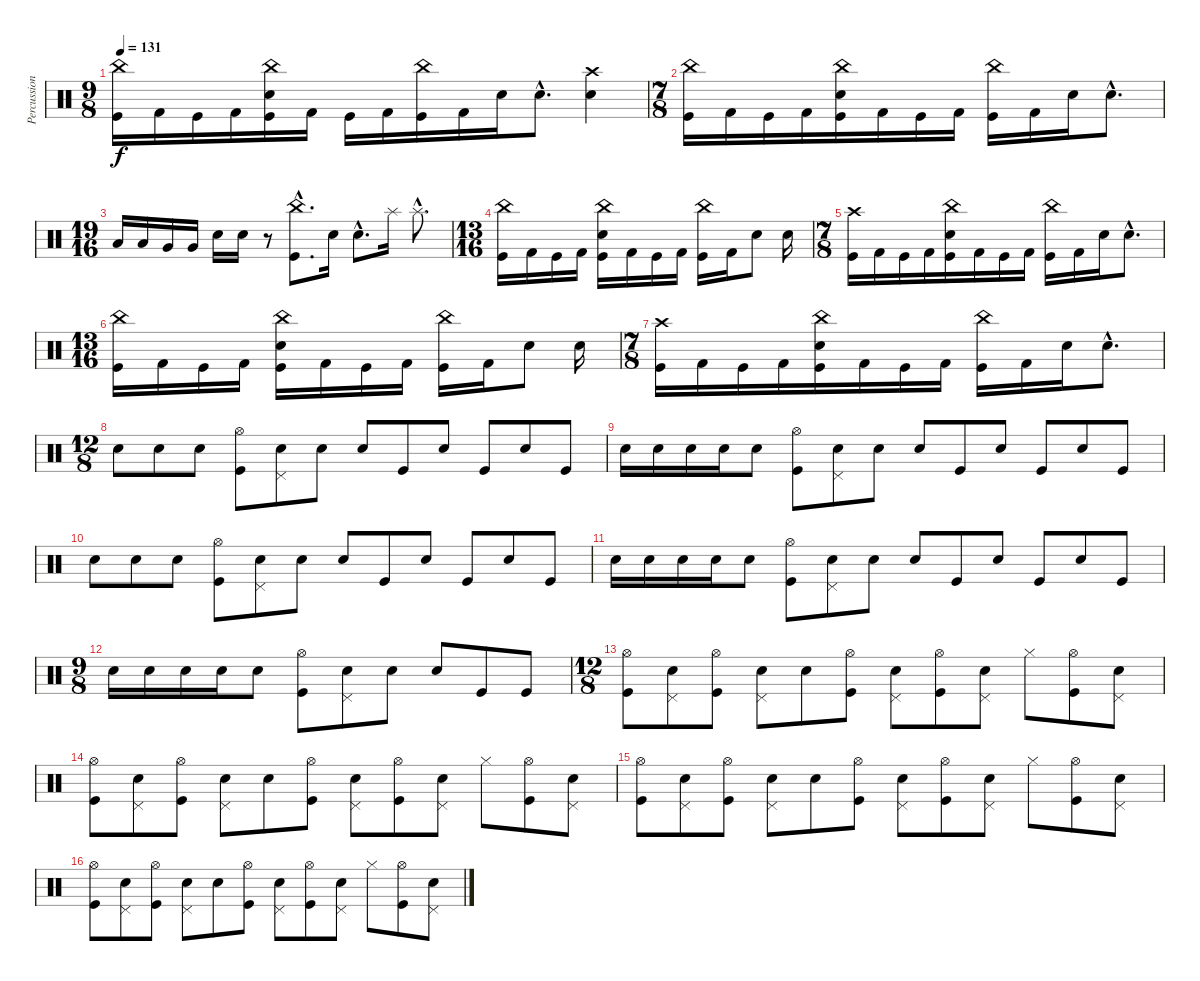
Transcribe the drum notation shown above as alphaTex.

\track ("Percussion" "Percussion") {instrument percussion}
\staff {score}
\articulation defaults
\ts (9 8)
\tempo 131
\clef neutral
\ks c
("China (hit)" "Kick (hit)").16{dy f} "Kick (hit) 2".16 "Kick (hit)".16 "Kick (hit) 2".16 ("China (hit)" "Kick (hit)" "Snare (hit) 2").16 "Kick (hit) 2".16 "Kick (hit)".16 "Kick (hit) 2".16 ("China (hit)" "Kick (hit)").16 "Kick (hit) 2".16 "Snare (hit) 2".16 "Snare (hit) 2"{hac}.8{d} ("Crash high (hit)" "Snare (hit) 2").4 |
\ts (7 8)
("China (hit)" "Kick (hit)").16 "Kick (hit) 2".16 "Kick (hit)".16 "Kick (hit) 2".16 ("China (hit)" "Kick (hit)" "Snare (hit) 2").16 "Kick (hit) 2".16 "Kick (hit)".16 "Kick (hit) 2".16 ("China (hit)" "Kick (hit)").16 "Kick (hit) 2".16 "Snare (hit) 2".16 "Snare (hit) 2"{hac}.8{d} |
\ts (19 16)
"Low Tom (hit)".16 "Low Tom (hit)".16 "Very Low Tom (hit)".16 "Very Low Tom (hit)".16 "Snare (hit) 2".16 "Snare (hit) 2".16 r.8 ("China (hit)"{hac} "Kick (hit)"{hac}).8{d} "Snare (hit) 2".16 "Snare (hit) 2"{hac}.8{d} "Splash (hit)".16 "Splash (hit)"{hac}.8{d} |
\ts (13 16)
("China (hit)" "Kick (hit)").16 "Kick (hit) 2".16 "Kick (hit)".16 "Kick (hit) 2".16 ("China (hit)" "Kick (hit)" "Snare (hit) 2").16 "Kick (hit) 2".16 "Kick (hit)".16 "Kick (hit) 2".16 ("China (hit)" "Kick (hit)").16 "Kick (hit) 2".16 "Snare (hit) 2".8 "Snare (hit) 2".16 |
\ts (7 8)
("Crash high (hit)" "Kick (hit)").16 "Kick (hit) 2".16 "Kick (hit)".16 "Kick (hit) 2".16 ("China (hit)" "Kick (hit)" "Snare (hit) 2").16 "Kick (hit) 2".16 "Kick (hit)".16 "Kick (hit) 2".16 ("China (hit)" "Kick (hit)").16 "Kick (hit) 2".16 "Snare (hit) 2".16 "Snare (hit) 2"{hac}.8{d} |
\ts (13 16)
("China (hit)" "Kick (hit)").16 "Kick (hit) 2".16 "Kick (hit)".16 "Kick (hit) 2".16 ("China (hit)" "Kick (hit)" "Snare (hit) 2").16 "Kick (hit) 2".16 "Kick (hit)".16 "Kick (hit) 2".16 ("China (hit)" "Kick (hit)").16 "Kick (hit) 2".16 "Snare (hit) 2".8 "Snare (hit) 2".16 |
\ts (7 8)
("Crash high (hit)" "Kick (hit)").16 "Kick (hit) 2".16 "Kick (hit)".16 "Kick (hit) 2".16 ("China (hit)" "Kick (hit)" "Snare (hit) 2").16 "Kick (hit) 2".16 "Kick (hit)".16 "Kick (hit) 2".16 ("China (hit)" "Kick (hit)").16 "Kick (hit) 2".16 "Snare (hit) 2".16 "Snare (hit) 2"{hac}.8{d} |
\ts (12 8)
"Snare (hit) 2".8 "Snare (hit) 2".8 "Snare (hit) 2".8 ("Hi-Hat (open)" "Kick (hit)").8 ("Snare (hit) 2" "Pedal Hi-Hat (hit)").8 "Snare (hit) 2".8 "Electric Snare (hit)".8 "Kick (hit)".8 "Electric Snare (hit)".8 "Kick (hit)".8 "Electric Snare (hit)".8 "Kick (hit)".8 |
"Snare (hit) 2".16 "Snare (hit) 2".16 "Snare (hit) 2".16 "Snare (hit) 2".16 "Snare (hit) 2".8 ("Hi-Hat (open)" "Kick (hit)").8 ("Snare (hit) 2" "Pedal Hi-Hat (hit)").8 "Snare (hit) 2".8 "Electric Snare (hit)".8 "Kick (hit)".8 "Electric Snare (hit)".8 "Kick (hit)".8 "Electric Snare (hit)".8 "Kick (hit)".8 |
"Snare (hit) 2".8 "Snare (hit) 2".8 "Snare (hit) 2".8 ("Hi-Hat (open)" "Kick (hit)").8 ("Snare (hit) 2" "Pedal Hi-Hat (hit)").8 "Snare (hit) 2".8 "Electric Snare (hit)".8 "Kick (hit)".8 "Electric Snare (hit)".8 "Kick (hit)".8 "Electric Snare (hit)".8 "Kick (hit)".8 |
"Snare (hit) 2".16 "Snare (hit) 2".16 "Snare (hit) 2".16 "Snare (hit) 2".16 "Snare (hit) 2".8 ("Hi-Hat (open)" "Kick (hit)").8 ("Snare (hit) 2" "Pedal Hi-Hat (hit)").8 "Snare (hit) 2".8 "Electric Snare (hit)".8 "Kick (hit)".8 "Electric Snare (hit)".8 "Kick (hit)".8 "Electric Snare (hit)".8 "Kick (hit)".8 |
\ts (9 8)
"Snare (hit) 2".16 "Snare (hit) 2".16 "Snare (hit) 2".16 "Snare (hit) 2".16 "Snare (hit) 2".8 ("Hi-Hat (open)" "Kick (hit)").8 ("Snare (hit) 2" "Pedal Hi-Hat (hit)").8 "Snare (hit) 2".8 "Electric Snare (hit)".8 "Kick (hit)".8 "Kick (hit)".8 |
\ts (12 8)
("Hi-Hat (open)" "Kick (hit)").8 ("Electric Snare (hit)" "Pedal Hi-Hat (hit)").8 ("Hi-Hat (open)" "Kick (hit)").8 ("Electric Snare (hit)" "Pedal Hi-Hat (hit)").8 "Electric Snare (hit)".8 ("Hi-Hat (open)" "Kick (hit)").8 ("Electric Snare (hit)" "Pedal Hi-Hat (hit)").8 ("Hi-Hat (open)" "Kick (hit)").8 ("Electric Snare (hit)" "Pedal Hi-Hat (hit)").8 "Hi-Hat (closed)".8 ("Hi-Hat (open)" "Kick (hit)").8 ("Electric Snare (hit)" "Pedal Hi-Hat (hit)").8 |
("Hi-Hat (open)" "Kick (hit)").8 ("Electric Snare (hit)" "Pedal Hi-Hat (hit)").8 ("Hi-Hat (open)" "Kick (hit)").8 ("Electric Snare (hit)" "Pedal Hi-Hat (hit)").8 "Electric Snare (hit)".8 ("Hi-Hat (open)" "Kick (hit)").8 ("Electric Snare (hit)" "Pedal Hi-Hat (hit)").8 ("Hi-Hat (open)" "Kick (hit)").8 ("Electric Snare (hit)" "Pedal Hi-Hat (hit)").8 "Hi-Hat (closed)".8 ("Hi-Hat (open)" "Kick (hit)").8 ("Electric Snare (hit)" "Pedal Hi-Hat (hit)").8 |
("Hi-Hat (open)" "Kick (hit)").8 ("Electric Snare (hit)" "Pedal Hi-Hat (hit)").8 ("Hi-Hat (open)" "Kick (hit)").8 ("Electric Snare (hit)" "Pedal Hi-Hat (hit)").8 "Electric Snare (hit)".8 ("Hi-Hat (open)" "Kick (hit)").8 ("Electric Snare (hit)" "Pedal Hi-Hat (hit)").8 ("Hi-Hat (open)" "Kick (hit)").8 ("Electric Snare (hit)" "Pedal Hi-Hat (hit)").8 "Hi-Hat (closed)".8 ("Hi-Hat (open)" "Kick (hit)").8 ("Electric Snare (hit)" "Pedal Hi-Hat (hit)").8 |
("Hi-Hat (open)" "Kick (hit)").8 ("Electric Snare (hit)" "Pedal Hi-Hat (hit)").8 ("Hi-Hat (open)" "Kick (hit)").8 ("Electric Snare (hit)" "Pedal Hi-Hat (hit)").8 "Electric Snare (hit)".8 ("Hi-Hat (open)" "Kick (hit)").8 ("Electric Snare (hit)" "Pedal Hi-Hat (hit)").8 ("Hi-Hat (open)" "Kick (hit)").8 ("Electric Snare (hit)" "Pedal Hi-Hat (hit)").8 "Hi-Hat (closed)".8 ("Hi-Hat (open)" "Kick (hit)").8 ("Electric Snare (hit)" "Pedal Hi-Hat (hit)").8
